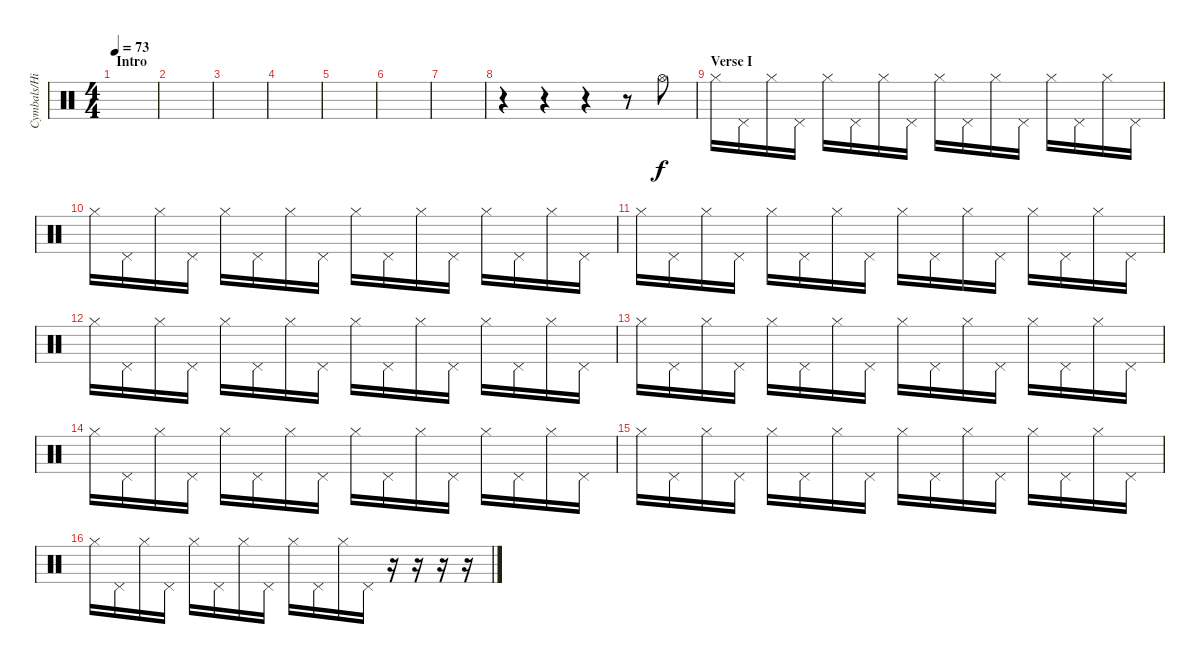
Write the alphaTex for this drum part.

\track ("Cymbals/Hi-hat" "Cymbals/Hi") {instrument percussion}
\staff {score}
\articulation defaults
\ts (4 4)
\section ("" "Intro")
\tempo 73
\clef neutral
\ks c
|
|
|
|
|
|
|
r.4 r.4 r.4 r.8 "Hi-Hat (open)".8 |
\section ("" "Verse I")
"Hi-Hat (closed)".16 "Pedal Hi-Hat (hit)".16 "Hi-Hat (closed)".16 "Pedal Hi-Hat (hit)".16 "Hi-Hat (closed)".16 "Pedal Hi-Hat (hit)".16 "Hi-Hat (closed)".16 "Pedal Hi-Hat (hit)".16 "Hi-Hat (closed)".16 "Pedal Hi-Hat (hit)".16 "Hi-Hat (closed)".16 "Pedal Hi-Hat (hit)".16 "Hi-Hat (closed)".16 "Pedal Hi-Hat (hit)".16 "Hi-Hat (closed)".16 "Pedal Hi-Hat (hit)".16 |
"Hi-Hat (closed)".16 "Pedal Hi-Hat (hit)".16 "Hi-Hat (closed)".16 "Pedal Hi-Hat (hit)".16 "Hi-Hat (closed)".16 "Pedal Hi-Hat (hit)".16 "Hi-Hat (closed)".16 "Pedal Hi-Hat (hit)".16 "Hi-Hat (closed)".16 "Pedal Hi-Hat (hit)".16 "Hi-Hat (closed)".16 "Pedal Hi-Hat (hit)".16 "Hi-Hat (closed)".16 "Pedal Hi-Hat (hit)".16 "Hi-Hat (closed)".16 "Pedal Hi-Hat (hit)".16 |
"Hi-Hat (closed)".16 "Pedal Hi-Hat (hit)".16 "Hi-Hat (closed)".16 "Pedal Hi-Hat (hit)".16 "Hi-Hat (closed)".16 "Pedal Hi-Hat (hit)".16 "Hi-Hat (closed)".16 "Pedal Hi-Hat (hit)".16 "Hi-Hat (closed)".16 "Pedal Hi-Hat (hit)".16 "Hi-Hat (closed)".16 "Pedal Hi-Hat (hit)".16 "Hi-Hat (closed)".16 "Pedal Hi-Hat (hit)".16 "Hi-Hat (closed)".16 "Pedal Hi-Hat (hit)".16 |
"Hi-Hat (closed)".16 "Pedal Hi-Hat (hit)".16 "Hi-Hat (closed)".16 "Pedal Hi-Hat (hit)".16 "Hi-Hat (closed)".16 "Pedal Hi-Hat (hit)".16 "Hi-Hat (closed)".16 "Pedal Hi-Hat (hit)".16 "Hi-Hat (closed)".16 "Pedal Hi-Hat (hit)".16 "Hi-Hat (closed)".16 "Pedal Hi-Hat (hit)".16 "Hi-Hat (closed)".16 "Pedal Hi-Hat (hit)".16 "Hi-Hat (closed)".16 "Pedal Hi-Hat (hit)".16 |
"Hi-Hat (closed)".16 "Pedal Hi-Hat (hit)".16 "Hi-Hat (closed)".16 "Pedal Hi-Hat (hit)".16 "Hi-Hat (closed)".16 "Pedal Hi-Hat (hit)".16 "Hi-Hat (closed)".16 "Pedal Hi-Hat (hit)".16 "Hi-Hat (closed)".16 "Pedal Hi-Hat (hit)".16 "Hi-Hat (closed)".16 "Pedal Hi-Hat (hit)".16 "Hi-Hat (closed)".16 "Pedal Hi-Hat (hit)".16 "Hi-Hat (closed)".16 "Pedal Hi-Hat (hit)".16 |
"Hi-Hat (closed)".16 "Pedal Hi-Hat (hit)".16 "Hi-Hat (closed)".16 "Pedal Hi-Hat (hit)".16 "Hi-Hat (closed)".16 "Pedal Hi-Hat (hit)".16 "Hi-Hat (closed)".16 "Pedal Hi-Hat (hit)".16 "Hi-Hat (closed)".16 "Pedal Hi-Hat (hit)".16 "Hi-Hat (closed)".16 "Pedal Hi-Hat (hit)".16 "Hi-Hat (closed)".16 "Pedal Hi-Hat (hit)".16 "Hi-Hat (closed)".16 "Pedal Hi-Hat (hit)".16 |
"Hi-Hat (closed)".16 "Pedal Hi-Hat (hit)".16 "Hi-Hat (closed)".16 "Pedal Hi-Hat (hit)".16 "Hi-Hat (closed)".16 "Pedal Hi-Hat (hit)".16 "Hi-Hat (closed)".16 "Pedal Hi-Hat (hit)".16 "Hi-Hat (closed)".16 "Pedal Hi-Hat (hit)".16 "Hi-Hat (closed)".16 "Pedal Hi-Hat (hit)".16 "Hi-Hat (closed)".16 "Pedal Hi-Hat (hit)".16 "Hi-Hat (closed)".16 "Pedal Hi-Hat (hit)".16 |
"Hi-Hat (closed)".16 "Pedal Hi-Hat (hit)".16 "Hi-Hat (closed)".16 "Pedal Hi-Hat (hit)".16 "Hi-Hat (closed)".16 "Pedal Hi-Hat (hit)".16 "Hi-Hat (closed)".16 "Pedal Hi-Hat (hit)".16 "Hi-Hat (closed)".16 "Pedal Hi-Hat (hit)".16 "Hi-Hat (closed)".16 "Pedal Hi-Hat (hit)".16 r.16 r.16 r.16 r.16
